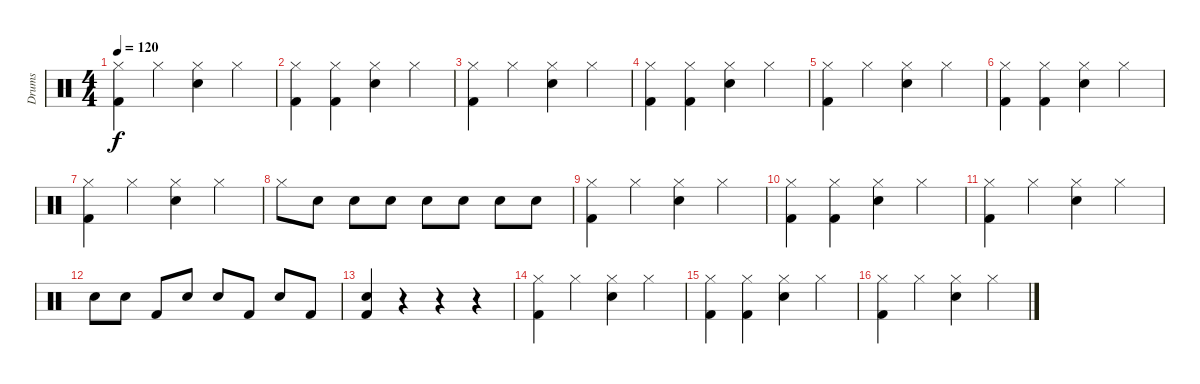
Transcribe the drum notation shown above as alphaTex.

\track ("Drums" "Drums") {instrument percussion}
\staff {score}
\articulation defaults
\ts (4 4)
\tempo 120
\clef neutral
\ks c
("Kick (hit) 2" "Hi-Hat (closed)").4{dy f} "Hi-Hat (closed)".4 ("Snare (hit) 2" "Hi-Hat (closed)").4 "Hi-Hat (closed)".4 |
("Kick (hit) 2" "Hi-Hat (closed)").4 ("Kick (hit) 2" "Hi-Hat (closed)").4 ("Snare (hit) 2" "Hi-Hat (closed)").4 "Hi-Hat (closed)".4 |
("Kick (hit) 2" "Hi-Hat (closed)").4 "Hi-Hat (closed)".4 ("Snare (hit) 2" "Hi-Hat (closed)").4 "Hi-Hat (closed)".4 |
("Kick (hit) 2" "Hi-Hat (closed)").4 ("Kick (hit) 2" "Hi-Hat (closed)").4 ("Snare (hit) 2" "Hi-Hat (closed)").4 "Hi-Hat (closed)".4 |
("Kick (hit) 2" "Hi-Hat (closed)").4 "Hi-Hat (closed)".4 ("Snare (hit) 2" "Hi-Hat (closed)").4 "Hi-Hat (closed)".4 |
("Kick (hit) 2" "Hi-Hat (closed)").4 ("Kick (hit) 2" "Hi-Hat (closed)").4 ("Snare (hit) 2" "Hi-Hat (closed)").4 "Hi-Hat (closed)".4 |
("Kick (hit) 2" "Hi-Hat (closed)").4 "Hi-Hat (closed)".4 ("Snare (hit) 2" "Hi-Hat (closed)").4 "Hi-Hat (closed)".4 |
"Hi-Hat (closed)".8 "Snare (hit) 2".8 "Snare (hit) 2".8 "Snare (hit) 2".8 "Snare (hit) 2".8 "Snare (hit) 2".8 "Snare (hit) 2".8 "Snare (hit) 2".8 |
("Kick (hit) 2" "Hi-Hat (closed)").4 "Hi-Hat (closed)".4 ("Snare (hit) 2" "Hi-Hat (closed)").4 "Hi-Hat (closed)".4 |
("Kick (hit) 2" "Hi-Hat (closed)").4 ("Kick (hit) 2" "Hi-Hat (closed)").4 ("Snare (hit) 2" "Hi-Hat (closed)").4 "Hi-Hat (closed)".4 |
("Kick (hit) 2" "Hi-Hat (closed)").4 "Hi-Hat (closed)".4 ("Snare (hit) 2" "Hi-Hat (closed)").4 "Hi-Hat (closed)".4 |
"Snare (hit) 2".8 "Snare (hit) 2".8 "Kick (hit) 2".8 "Snare (hit) 2".8 "Snare (hit) 2".8 "Kick (hit) 2".8 "Snare (hit) 2".8 "Kick (hit) 2".8 |
("Snare (hit) 2" "Kick (hit) 2").4 r.4 r.4 r.4 |
("Kick (hit) 2" "Hi-Hat (closed)").4 "Hi-Hat (closed)".4 ("Snare (hit) 2" "Hi-Hat (closed)").4 "Hi-Hat (closed)".4 |
("Kick (hit) 2" "Hi-Hat (closed)").4 ("Kick (hit) 2" "Hi-Hat (closed)").4 ("Snare (hit) 2" "Hi-Hat (closed)").4 "Hi-Hat (closed)".4 |
("Kick (hit) 2" "Hi-Hat (closed)").4 "Hi-Hat (closed)".4 ("Snare (hit) 2" "Hi-Hat (closed)").4 "Hi-Hat (closed)".4
